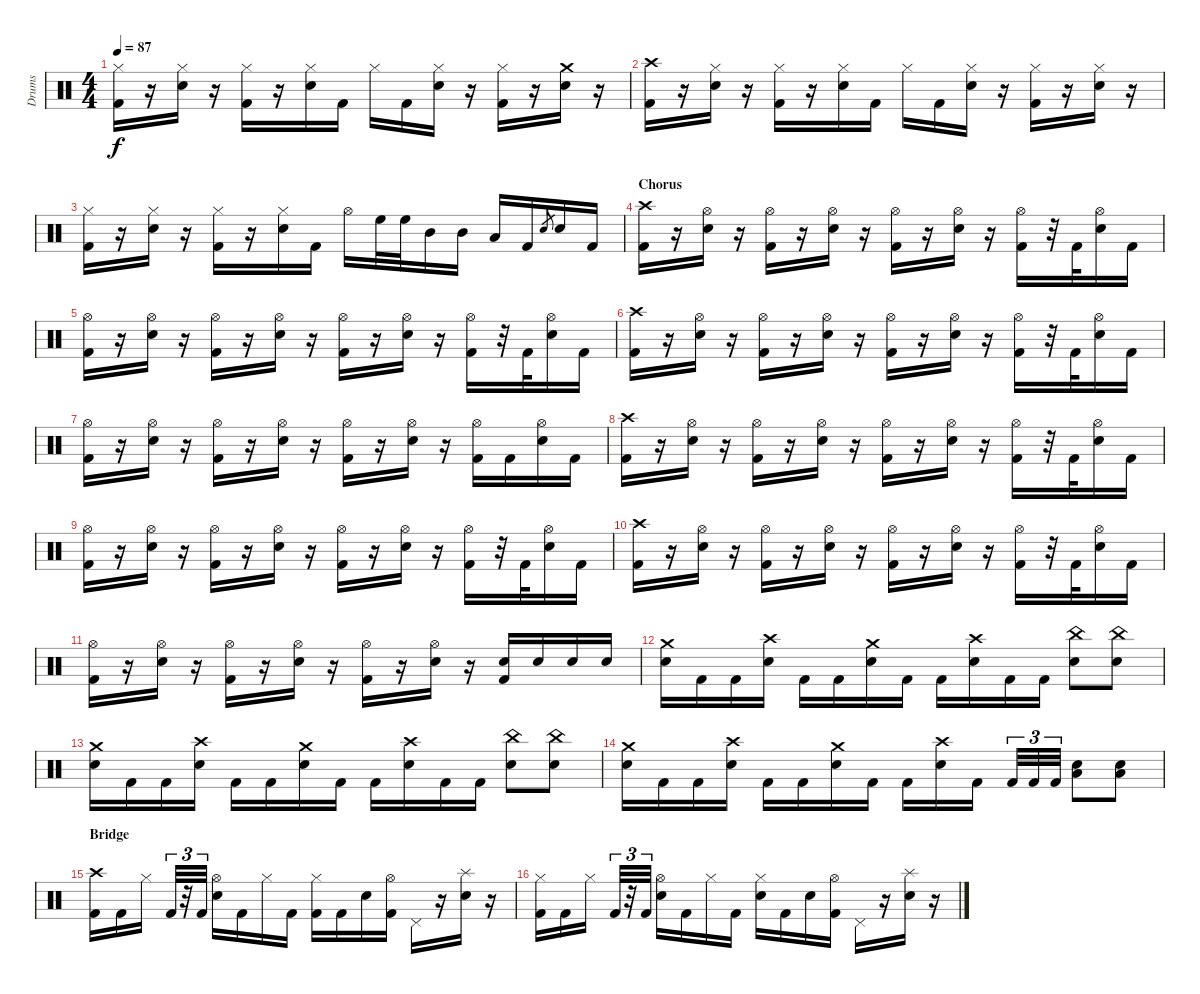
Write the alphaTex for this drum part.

\track ("Drums" "Drums") {instrument percussion}
\staff {score}
\articulation defaults
\ts (4 4)
\tempo 87
\clef neutral
\ks c
("Hi-Hat (closed)" "Kick (hit) 2").16{dy f} r.16 ("Hi-Hat (closed)" "Electric Snare (hit)").16 r.16 ("Hi-Hat (closed)" "Kick (hit) 2").16 r.16 ("Hi-Hat (closed)" "Electric Snare (hit)").16 "Kick (hit) 2".16 "Hi-Hat (closed)".16 "Kick (hit) 2".16 ("Hi-Hat (closed)" "Electric Snare (hit)").16 r.16 ("Hi-Hat (closed)" "Kick (hit) 2").16 r.16 ("Crash medium (hit)" "Electric Snare (hit)").16 r.16 |
("Crash high (hit)" "Kick (hit) 2").16 r.16 ("Hi-Hat (closed)" "Electric Snare (hit)").16 r.16 ("Hi-Hat (closed)" "Kick (hit) 2").16 r.16 ("Hi-Hat (closed)" "Electric Snare (hit)").16 "Kick (hit) 2".16 "Hi-Hat (closed)".16 "Kick (hit) 2".16 ("Hi-Hat (closed)" "Electric Snare (hit)").16 r.16 ("Hi-Hat (closed)" "Kick (hit) 2").16 r.16 ("Hi-Hat (closed)" "Electric Snare (hit)").16 r.16 |
("Hi-Hat (closed)" "Kick (hit) 2").16 r.16 ("Hi-Hat (closed)" "Electric Snare (hit)").16 r.16 ("Hi-Hat (closed)" "Kick (hit) 2").16 r.16 ("Hi-Hat (closed)" "Electric Snare (hit)").16 "Kick (hit) 2".16 "Hi-Hat (open)".16 "High Floor Tom (hit)".32 "High Floor Tom (hit)".32 "Mid Tom (hit)".16 "Mid Tom (hit)".16 "Low Tom (hit)".16 "Kick (hit) 2".16 "Electric Snare (hit)".8{gr} "Electric Snare (hit)".16 "Kick (hit) 2".16 |
\section ("" "Chorus")
("Crash high (hit)" "Kick (hit) 2").16 r.16 ("Hi-Hat (open)" "Electric Snare (hit)").16 r.16 ("Hi-Hat (open)" "Kick (hit) 2").16 r.16 ("Hi-Hat (open)" "Electric Snare (hit)").16 r.16 ("Hi-Hat (open)" "Kick (hit) 2").16 r.16 ("Hi-Hat (open)" "Electric Snare (hit)").16 r.16 ("Hi-Hat (open)" "Kick (hit) 2").16 r.32 "Kick (hit) 2".32 ("Hi-Hat (open)" "Electric Snare (hit)").16 "Kick (hit) 2".16 |
("Hi-Hat (open)" "Kick (hit) 2").16 r.16 ("Hi-Hat (open)" "Electric Snare (hit)").16 r.16 ("Hi-Hat (open)" "Kick (hit) 2").16 r.16 ("Hi-Hat (open)" "Electric Snare (hit)").16 r.16 ("Hi-Hat (open)" "Kick (hit) 2").16 r.16 ("Hi-Hat (open)" "Electric Snare (hit)").16 r.16 ("Hi-Hat (open)" "Kick (hit) 2").16 r.32 "Kick (hit) 2".32 ("Hi-Hat (open)" "Electric Snare (hit)").16 "Kick (hit) 2".16 |
("Crash high (hit)" "Kick (hit) 2").16 r.16 ("Hi-Hat (open)" "Electric Snare (hit)").16 r.16 ("Hi-Hat (open)" "Kick (hit) 2").16 r.16 ("Hi-Hat (open)" "Electric Snare (hit)").16 r.16 ("Hi-Hat (open)" "Kick (hit) 2").16 r.16 ("Hi-Hat (open)" "Electric Snare (hit)").16 r.16 ("Hi-Hat (open)" "Kick (hit) 2").16 r.32 "Kick (hit) 2".32 ("Hi-Hat (open)" "Electric Snare (hit)").16 "Kick (hit) 2".16 |
("Hi-Hat (open)" "Kick (hit) 2").16 r.16 ("Hi-Hat (open)" "Electric Snare (hit)").16 r.16 ("Hi-Hat (open)" "Kick (hit) 2").16 r.16 ("Hi-Hat (open)" "Electric Snare (hit)").16 r.16 ("Hi-Hat (open)" "Kick (hit) 2").16 r.16 ("Hi-Hat (open)" "Electric Snare (hit)").16 r.16 ("Hi-Hat (open)" "Kick (hit) 2").16 "Kick (hit) 2".16 ("Hi-Hat (open)" "Electric Snare (hit)").16 "Kick (hit) 2".16 |
("Crash high (hit)" "Kick (hit) 2").16 r.16 ("Hi-Hat (open)" "Electric Snare (hit)").16 r.16 ("Hi-Hat (open)" "Kick (hit) 2").16 r.16 ("Hi-Hat (open)" "Electric Snare (hit)").16 r.16 ("Hi-Hat (open)" "Kick (hit) 2").16 r.16 ("Hi-Hat (open)" "Electric Snare (hit)").16 r.16 ("Hi-Hat (open)" "Kick (hit) 2").16 r.32 "Kick (hit) 2".32 ("Hi-Hat (open)" "Electric Snare (hit)").16 "Kick (hit) 2".16 |
("Hi-Hat (open)" "Kick (hit) 2").16 r.16 ("Hi-Hat (open)" "Electric Snare (hit)").16 r.16 ("Hi-Hat (open)" "Kick (hit) 2").16 r.16 ("Hi-Hat (open)" "Electric Snare (hit)").16 r.16 ("Hi-Hat (open)" "Kick (hit) 2").16 r.16 ("Hi-Hat (open)" "Electric Snare (hit)").16 r.16 ("Hi-Hat (open)" "Kick (hit) 2").16 r.32 "Kick (hit) 2".32 ("Hi-Hat (open)" "Electric Snare (hit)").16 "Kick (hit) 2".16 |
("Crash high (hit)" "Kick (hit) 2").16 r.16 ("Hi-Hat (open)" "Electric Snare (hit)").16 r.16 ("Hi-Hat (open)" "Kick (hit) 2").16 r.16 ("Hi-Hat (open)" "Electric Snare (hit)").16 r.16 ("Hi-Hat (open)" "Kick (hit) 2").16 r.16 ("Hi-Hat (open)" "Electric Snare (hit)").16 r.16 ("Hi-Hat (open)" "Kick (hit) 2").16 r.32 "Kick (hit) 2".32 ("Hi-Hat (open)" "Electric Snare (hit)").16 "Kick (hit) 2".16 |
("Hi-Hat (open)" "Kick (hit) 2").16 r.16 ("Hi-Hat (open)" "Electric Snare (hit)").16 r.16 ("Hi-Hat (open)" "Kick (hit) 2").16 r.16 ("Hi-Hat (open)" "Electric Snare (hit)").16 r.16 ("Hi-Hat (open)" "Kick (hit) 2").16 r.16 ("Hi-Hat (open)" "Electric Snare (hit)").16 r.16 ("Electric Snare (hit)" "Kick (hit) 2").16 "Electric Snare (hit)".16 "Electric Snare (hit)".16 "Electric Snare (hit)".16 |
("Crash medium (hit)" "Electric Snare (hit)").16 "Kick (hit) 2".16 "Kick (hit) 2".16 ("Crash high (hit)" "Electric Snare (hit)").16 "Kick (hit) 2".16 "Kick (hit) 2".16 ("Crash medium (hit)" "Electric Snare (hit)").16 "Kick (hit) 2".16 "Kick (hit) 2".16 ("Crash high (hit)" "Electric Snare (hit)").16 "Kick (hit) 2".16 "Kick (hit) 2".16 ("China (hit)" "Electric Snare (hit)").8 ("China (hit)" "Electric Snare (hit)").8 |
("Crash medium (hit)" "Electric Snare (hit)").16 "Kick (hit) 2".16 "Kick (hit) 2".16 ("Crash high (hit)" "Electric Snare (hit)").16 "Kick (hit) 2".16 "Kick (hit) 2".16 ("Crash medium (hit)" "Electric Snare (hit)").16 "Kick (hit) 2".16 "Kick (hit) 2".16 ("Crash high (hit)" "Electric Snare (hit)").16 "Kick (hit) 2".16 "Kick (hit) 2".16 ("China (hit)" "Electric Snare (hit)").8 ("China (hit)" "Electric Snare (hit)").8 |
("Crash medium (hit)" "Electric Snare (hit)").16 "Kick (hit) 2".16 "Kick (hit) 2".16 ("Crash high (hit)" "Electric Snare (hit)").16 "Kick (hit) 2".16 "Kick (hit) 2".16 ("Crash medium (hit)" "Electric Snare (hit)").16 "Kick (hit) 2".16 "Kick (hit) 2".16 ("Crash high (hit)" "Electric Snare (hit)").16 "Kick (hit) 2".16 "Kick (hit) 2".32{tu (3 2)} "Kick (hit) 2".32{tu (3 2)} "Kick (hit) 2".32{tu (3 2)} ("Electric Snare (hit)" "Low Floor Tom (hit)").8 ("Electric Snare (hit)" "Low Floor Tom (hit)").8 |
\section ("" "Bridge")
("Crash high (hit)" "Kick (hit) 2").16 "Kick (hit) 2".16 "Hi-Hat (closed)".16 "Kick (hit) 2".32{tu (3 2)} r.32{tu (3 2)} "Kick (hit) 2".32{tu (3 2)} ("Hi-Hat (open)" "Electric Snare (hit)").16 "Kick (hit) 2".16 "Hi-Hat (closed)".16 "Kick (hit) 2".16 ("Hi-Hat (closed)" "Kick (hit) 2").16 "Kick (hit) 2".16 "Electric Snare (hit)".16 ("Hi-Hat (open)" "Kick (hit) 2").16 "Pedal Hi-Hat (hit)".16 r.16 ("Splash (hit)" "Electric Snare (hit)").16 r.16 |
("Hi-Hat (closed)" "Kick (hit) 2").16 "Kick (hit) 2".16 "Hi-Hat (closed)".16 "Kick (hit) 2".32{tu (3 2)} r.32{tu (3 2)} "Kick (hit) 2".32{tu (3 2)} ("Hi-Hat (open)" "Electric Snare (hit)").16 "Kick (hit) 2".16 "Hi-Hat (closed)".16 "Kick (hit) 2".16 ("Hi-Hat (closed)" "Electric Snare (hit)").16 "Kick (hit) 2".16 "Electric Snare (hit)".16 ("Hi-Hat (open)" "Kick (hit) 2").16 "Pedal Hi-Hat (hit)".16 r.16 ("Splash (hit)" "Electric Snare (hit)").16 r.16
